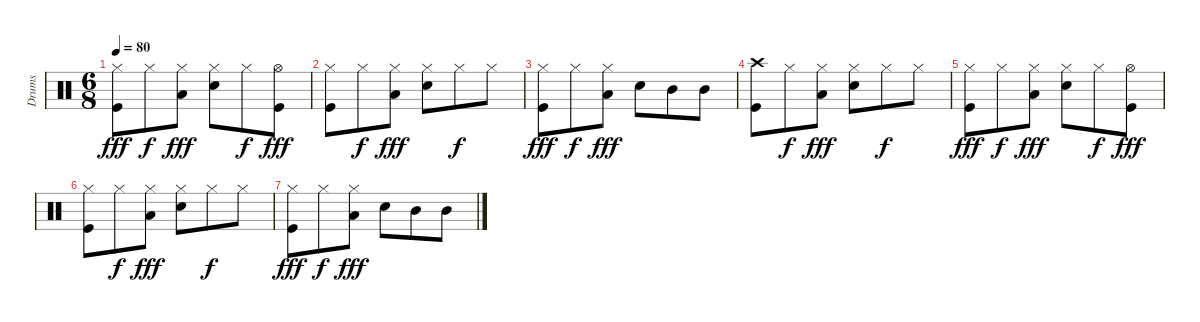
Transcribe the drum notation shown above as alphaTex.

\track ("Drums" "Drums") {instrument percussion}
\staff {score}
\articulation defaults
\ts (6 8)
\tempo 80
\clef neutral
\ks c
("Hi-Hat (closed)" "Kick (hit)").8{dy fff} "Hi-Hat (closed)".8{dy f} ("Hi-Hat (closed)" "Low Tom (hit)").8{dy fff} ("Hi-Hat (closed)" "Electric Snare (hit)").8 "Hi-Hat (closed)".8{dy f} ("Hi-Hat (open)" "Kick (hit)").8{dy fff} |
("Hi-Hat (closed)" "Kick (hit)").8 "Hi-Hat (closed)".8{dy f} ("Hi-Hat (closed)" "Low Tom (hit)").8{dy fff} ("Hi-Hat (closed)" "Electric Snare (hit)").8 "Hi-Hat (closed)".8{dy f} "Hi-Hat (closed)".8 |
("Hi-Hat (closed)" "Kick (hit)").8{dy fff} "Hi-Hat (closed)".8{dy f} ("Hi-Hat (closed)" "Low Tom (hit)").8{dy fff} "Electric Snare (hit)".8 "Mid Tom (hit)".8 "Mid Tom (hit)".8 |
("Crash high (hit)" "Kick (hit)").8 "Hi-Hat (closed)".8{dy f} ("Hi-Hat (closed)" "Low Tom (hit)").8{dy fff} ("Hi-Hat (closed)" "Electric Snare (hit)").8 "Hi-Hat (closed)".8{dy f} "Hi-Hat (closed)".8 |
("Hi-Hat (closed)" "Kick (hit)").8{dy fff} "Hi-Hat (closed)".8{dy f} ("Hi-Hat (closed)" "Low Tom (hit)").8{dy fff} ("Hi-Hat (closed)" "Electric Snare (hit)").8 "Hi-Hat (closed)".8{dy f} ("Hi-Hat (open)" "Kick (hit)").8{dy fff} |
("Hi-Hat (closed)" "Kick (hit)").8 "Hi-Hat (closed)".8{dy f} ("Hi-Hat (closed)" "Low Tom (hit)").8{dy fff} ("Hi-Hat (closed)" "Electric Snare (hit)").8 "Hi-Hat (closed)".8{dy f} "Hi-Hat (closed)".8 |
("Hi-Hat (closed)" "Kick (hit)").8{dy fff} "Hi-Hat (closed)".8{dy f} ("Hi-Hat (closed)" "Low Tom (hit)").8{dy fff} "Electric Snare (hit)".8 "Mid Tom (hit)".8 "Mid Tom (hit)".8
